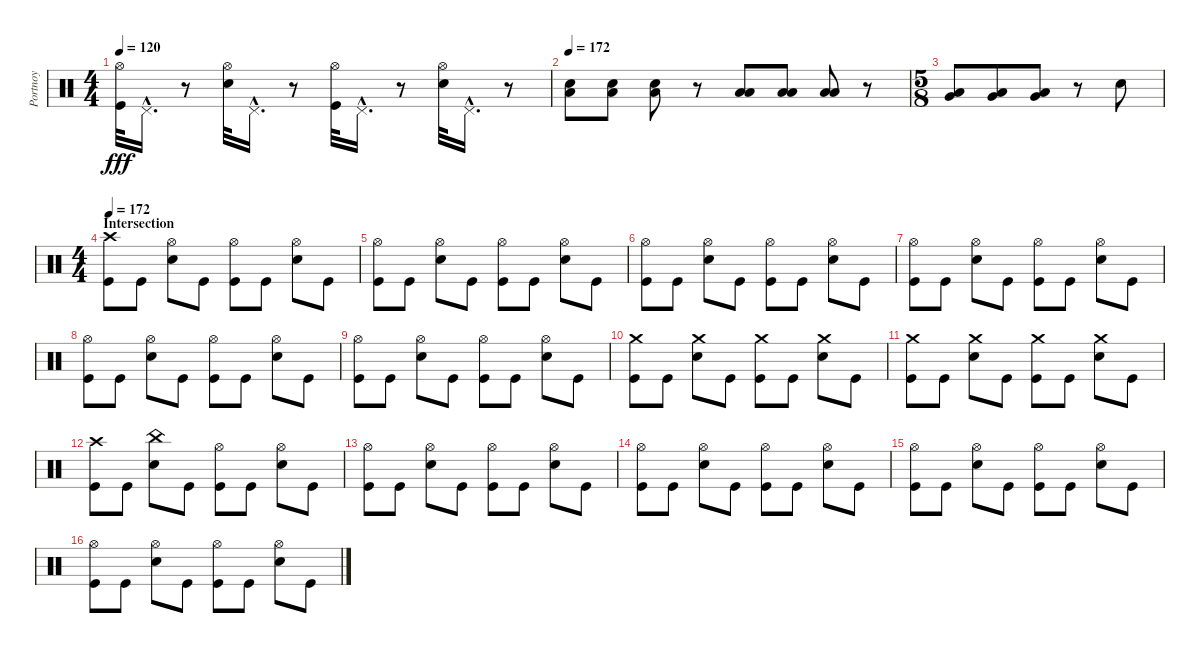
\track ("Portnoy" "Portnoy") {instrument percussion}
\staff {score}
\articulation defaults
\ts (4 4)
\tempo 120
\clef neutral
\ks c
("Hi-Hat (open)" "Kick (hit)").32{dy fff} "Pedal Hi-Hat (hit)"{hac}.16{d} r.8 ("Hi-Hat (open)" "Snare (hit) 2").32 "Pedal Hi-Hat (hit)"{hac}.16{d} r.8 ("Hi-Hat (open)" "Kick (hit)").32 "Pedal Hi-Hat (hit)"{hac}.16{d} r.8 ("Hi-Hat (open)" "Snare (hit) 2").32 "Pedal Hi-Hat (hit)"{hac}.16{d} r.8 |
\tempo 172
("Low Floor Tom (hit)" "Snare (hit) 2").8 ("Low Floor Tom (hit)" "Snare (hit) 2").8 ("Low Floor Tom (hit)" "Snare (hit) 2").8 r.8 ("Low Tom (hit)" "Low Floor Tom (hit)").8 ("Low Tom (hit)" "Low Floor Tom (hit)").8 ("Low Tom (hit)" "Low Floor Tom (hit)").8 r.8 |
\ts (5 8)
("Very Low Tom (hit)" "Low Floor Tom (hit)").8 ("Very Low Tom (hit)" "Low Floor Tom (hit)").8 ("Very Low Tom (hit)" "Low Floor Tom (hit)").8 r.8 "Snare (hit) 2".8 |
\ts (4 4)
\section ("" "Intersection")
\tempo 172
("Crash high (hit)" "Kick (hit)").8 "Kick (hit)".8 ("Hi-Hat (open)" "Snare (hit) 2").8 "Kick (hit)".8 ("Hi-Hat (open)" "Kick (hit)").8 "Kick (hit)".8 ("Hi-Hat (open)" "Snare (hit) 2").8 "Kick (hit)".8 |
("Hi-Hat (open)" "Kick (hit)").8 "Kick (hit)".8 ("Hi-Hat (open)" "Snare (hit) 2").8 "Kick (hit)".8 ("Hi-Hat (open)" "Kick (hit)").8 "Kick (hit)".8 ("Hi-Hat (open)" "Snare (hit) 2").8 "Kick (hit)".8 |
("Hi-Hat (open)" "Kick (hit)").8 "Kick (hit)".8 ("Hi-Hat (open)" "Snare (hit) 2").8 "Kick (hit)".8 ("Hi-Hat (open)" "Kick (hit)").8 "Kick (hit)".8 ("Hi-Hat (open)" "Snare (hit) 2").8 "Kick (hit)".8 |
("Hi-Hat (open)" "Kick (hit)").8 "Kick (hit)".8 ("Hi-Hat (open)" "Snare (hit) 2").8 "Kick (hit)".8 ("Hi-Hat (open)" "Kick (hit)").8 "Kick (hit)".8 ("Hi-Hat (open)" "Snare (hit) 2").8 "Kick (hit)".8 |
("Hi-Hat (open)" "Kick (hit)").8 "Kick (hit)".8 ("Hi-Hat (open)" "Snare (hit) 2").8 "Kick (hit)".8 ("Hi-Hat (open)" "Kick (hit)").8 "Kick (hit)".8 ("Hi-Hat (open)" "Snare (hit) 2").8 "Kick (hit)".8 |
("Hi-Hat (open)" "Kick (hit)").8 "Kick (hit)".8 ("Hi-Hat (open)" "Snare (hit) 2").8 "Kick (hit)".8 ("Hi-Hat (open)" "Kick (hit)").8 "Kick (hit)".8 ("Hi-Hat (open)" "Snare (hit) 2").8 "Kick (hit)".8 |
("Crash medium (hit)" "Kick (hit)").8 "Kick (hit)".8 ("Crash medium (hit)" "Snare (hit) 2").8 "Kick (hit)".8 ("Crash medium (hit)" "Kick (hit)").8 "Kick (hit)".8 ("Crash medium (hit)" "Snare (hit) 2").8 "Kick (hit)".8 |
("Crash medium (hit)" "Kick (hit)").8 "Kick (hit)".8 ("Crash medium (hit)" "Snare (hit) 2").8 "Kick (hit)".8 ("Crash medium (hit)" "Kick (hit)").8 "Kick (hit)".8 ("Crash medium (hit)" "Snare (hit) 2").8 "Kick (hit)".8 |
("Crash high (hit)" "Kick (hit)").8 "Kick (hit)".8 ("China (hit)" "Snare (hit) 2").8 "Kick (hit)".8 ("Hi-Hat (open)" "Kick (hit)").8 "Kick (hit)".8 ("Hi-Hat (open)" "Snare (hit) 2").8 "Kick (hit)".8 |
("Hi-Hat (open)" "Kick (hit)").8 "Kick (hit)".8 ("Hi-Hat (open)" "Snare (hit) 2").8 "Kick (hit)".8 ("Hi-Hat (open)" "Kick (hit)").8 "Kick (hit)".8 ("Hi-Hat (open)" "Snare (hit) 2").8 "Kick (hit)".8 |
("Hi-Hat (open)" "Kick (hit)").8 "Kick (hit)".8 ("Hi-Hat (open)" "Snare (hit) 2").8 "Kick (hit)".8 ("Hi-Hat (open)" "Kick (hit)").8 "Kick (hit)".8 ("Hi-Hat (open)" "Snare (hit) 2").8 "Kick (hit)".8 |
("Hi-Hat (open)" "Kick (hit)").8 "Kick (hit)".8 ("Hi-Hat (open)" "Snare (hit) 2").8 "Kick (hit)".8 ("Hi-Hat (open)" "Kick (hit)").8 "Kick (hit)".8 ("Hi-Hat (open)" "Snare (hit) 2").8 "Kick (hit)".8 |
("Hi-Hat (open)" "Kick (hit)").8 "Kick (hit)".8 ("Hi-Hat (open)" "Snare (hit) 2").8 "Kick (hit)".8 ("Hi-Hat (open)" "Kick (hit)").8 "Kick (hit)".8 ("Hi-Hat (open)" "Snare (hit) 2").8 "Kick (hit)".8
